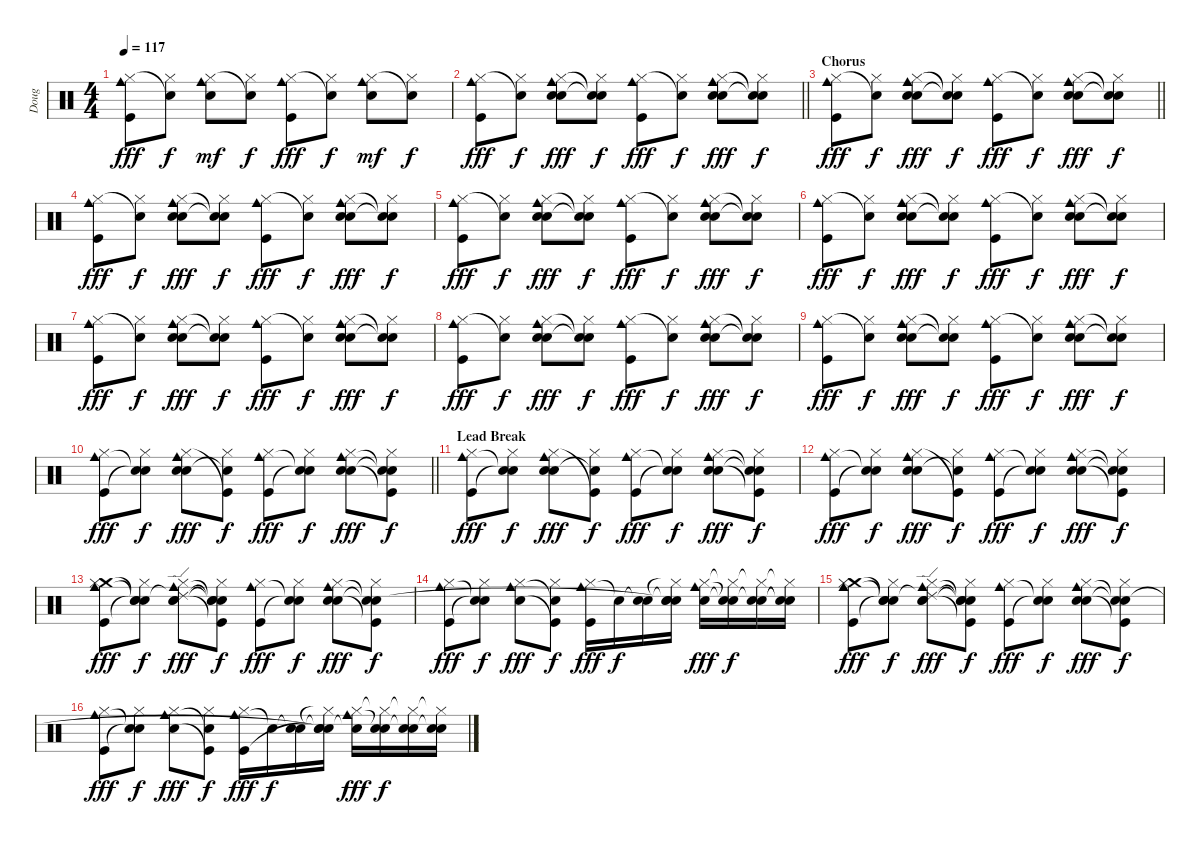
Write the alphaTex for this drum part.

\track ("Doug" "Doug") {instrument percussion}
\staff {score}
\articulation defaults
\ts (4 4)
\tempo 117
\clef neutral
\ks c
("Cowbell medium (hit)" "Hi-Hat (closed)" "Kick (hit)").8{dy fff} ("Hi-Hat (closed)" "Snare (hit)"{t}).8{dy f} ("Cowbell medium (hit)" "Hi-Hat (closed)" "Snare (hit) 2").8{dy mf} ("Hi-Hat (closed)" "Snare (hit)"{t}).8{dy f} ("Cowbell medium (hit)" "Hi-Hat (closed)" "Kick (hit)").8{dy fff} ("Hi-Hat (closed)" "Snare (hit)"{t}).8{dy f} ("Cowbell medium (hit)" "Hi-Hat (closed)" "Snare (hit) 2").8{dy mf} ("Hi-Hat (closed)" "Snare (hit)"{t}).8{dy f} |
\barLineRight lightlight
("Cowbell medium (hit)" "Hi-Hat (closed)" "Kick (hit)").8{dy fff} ("Hi-Hat (closed)" "Snare (hit)"{t}).8{dy f} ("Cowbell medium (hit)" "Hi-Hat (closed)" "Snare (hit) 2" "Hand Clap (hit)").8{dy fff} ("Hi-Hat (closed)" "Snare (hit)"{t} "Snare (hit)"{t}).8{dy f} ("Cowbell medium (hit)" "Hi-Hat (closed)" "Kick (hit)").8{dy fff} ("Hi-Hat (closed)" "Snare (hit)"{t}).8{dy f} ("Cowbell medium (hit)" "Hi-Hat (closed)" "Snare (hit) 2" "Hand Clap (hit)").8{dy fff} ("Hi-Hat (closed)" "Snare (hit)"{t} "Snare (hit)"{t}).8{dy f} |
\section ("" "Chorus")
\barLineRight lightlight
("Cowbell medium (hit)" "Hi-Hat (closed)" "Kick (hit)").8{dy fff} ("Hi-Hat (closed)" "Snare (hit)"{t}).8{dy f} ("Cowbell medium (hit)" "Hi-Hat (closed)" "Snare (hit) 2" "Hand Clap (hit)").8{dy fff} ("Hi-Hat (closed)" "Snare (hit)"{t} "Snare (hit)"{t}).8{dy f} ("Cowbell medium (hit)" "Hi-Hat (closed)" "Kick (hit)").8{dy fff} ("Hi-Hat (closed)" "Snare (hit)"{t}).8{dy f} ("Cowbell medium (hit)" "Hi-Hat (closed)" "Snare (hit) 2" "Hand Clap (hit)").8{dy fff} ("Hi-Hat (closed)" "Snare (hit)"{t} "Snare (hit)"{t}).8{dy f} |
("Cowbell medium (hit)" "Hi-Hat (closed)" "Kick (hit)").8{dy fff} ("Hi-Hat (closed)" "Snare (hit)"{t}).8{dy f} ("Cowbell medium (hit)" "Hi-Hat (closed)" "Snare (hit) 2" "Hand Clap (hit)").8{dy fff} ("Hi-Hat (closed)" "Snare (hit)"{t} "Snare (hit)"{t}).8{dy f} ("Cowbell medium (hit)" "Hi-Hat (closed)" "Kick (hit)").8{dy fff} ("Hi-Hat (closed)" "Snare (hit)"{t}).8{dy f} ("Cowbell medium (hit)" "Hi-Hat (closed)" "Snare (hit) 2" "Hand Clap (hit)").8{dy fff} ("Hi-Hat (closed)" "Snare (hit)"{t} "Snare (hit)"{t}).8{dy f} |
("Cowbell medium (hit)" "Hi-Hat (closed)" "Kick (hit)").8{dy fff} ("Hi-Hat (closed)" "Snare (hit)"{t}).8{dy f} ("Cowbell medium (hit)" "Hi-Hat (closed)" "Snare (hit) 2" "Hand Clap (hit)").8{dy fff} ("Hi-Hat (closed)" "Snare (hit)"{t} "Snare (hit)"{t}).8{dy f} ("Cowbell medium (hit)" "Hi-Hat (closed)" "Kick (hit)").8{dy fff} ("Hi-Hat (closed)" "Snare (hit)"{t}).8{dy f} ("Cowbell medium (hit)" "Hi-Hat (closed)" "Snare (hit) 2" "Hand Clap (hit)").8{dy fff} ("Hi-Hat (closed)" "Snare (hit)"{t} "Snare (hit)"{t}).8{dy f} |
("Cowbell medium (hit)" "Hi-Hat (closed)" "Kick (hit)").8{dy fff} ("Hi-Hat (closed)" "Snare (hit)"{t}).8{dy f} ("Cowbell medium (hit)" "Hi-Hat (closed)" "Snare (hit) 2" "Hand Clap (hit)").8{dy fff} ("Hi-Hat (closed)" "Snare (hit)"{t} "Snare (hit)"{t}).8{dy f} ("Cowbell medium (hit)" "Hi-Hat (closed)" "Kick (hit)").8{dy fff} ("Hi-Hat (closed)" "Snare (hit)"{t}).8{dy f} ("Cowbell medium (hit)" "Hi-Hat (closed)" "Snare (hit) 2" "Hand Clap (hit)").8{dy fff} ("Hi-Hat (closed)" "Snare (hit)"{t} "Snare (hit)"{t}).8{dy f} |
("Cowbell medium (hit)" "Hi-Hat (closed)" "Kick (hit)").8{dy fff} ("Hi-Hat (closed)" "Snare (hit)"{t}).8{dy f} ("Cowbell medium (hit)" "Hi-Hat (closed)" "Snare (hit) 2" "Hand Clap (hit)").8{dy fff} ("Hi-Hat (closed)" "Snare (hit)"{t} "Snare (hit)"{t}).8{dy f} ("Cowbell medium (hit)" "Hi-Hat (closed)" "Kick (hit)").8{dy fff} ("Hi-Hat (closed)" "Snare (hit)"{t}).8{dy f} ("Cowbell medium (hit)" "Hi-Hat (closed)" "Snare (hit) 2" "Hand Clap (hit)").8{dy fff} ("Hi-Hat (closed)" "Snare (hit)"{t} "Snare (hit)"{t}).8{dy f} |
("Cowbell medium (hit)" "Hi-Hat (closed)" "Kick (hit)").8{dy fff} ("Hi-Hat (closed)" "Snare (hit)"{t}).8{dy f} ("Cowbell medium (hit)" "Hi-Hat (closed)" "Snare (hit) 2" "Hand Clap (hit)").8{dy fff} ("Hi-Hat (closed)" "Snare (hit)"{t} "Snare (hit)"{t}).8{dy f} ("Cowbell medium (hit)" "Hi-Hat (closed)" "Kick (hit)").8{dy fff} ("Hi-Hat (closed)" "Snare (hit)"{t}).8{dy f} ("Cowbell medium (hit)" "Hi-Hat (closed)" "Snare (hit) 2" "Hand Clap (hit)").8{dy fff} ("Hi-Hat (closed)" "Snare (hit)"{t} "Snare (hit)"{t}).8{dy f} |
("Cowbell medium (hit)" "Hi-Hat (closed)" "Kick (hit)").8{dy fff} ("Hi-Hat (closed)" "Snare (hit)"{t}).8{dy f} ("Cowbell medium (hit)" "Hi-Hat (closed)" "Snare (hit) 2" "Hand Clap (hit)").8{dy fff} ("Hi-Hat (closed)" "Snare (hit)"{t} "Snare (hit)"{t}).8{dy f} ("Cowbell medium (hit)" "Hi-Hat (closed)" "Kick (hit)").8{dy fff} ("Hi-Hat (closed)" "Snare (hit)"{t}).8{dy f} ("Cowbell medium (hit)" "Hi-Hat (closed)" "Snare (hit) 2" "Hand Clap (hit)").8{dy fff} ("Hi-Hat (closed)" "Snare (hit)"{t} "Snare (hit)"{t}).8{dy f} |
\barLineRight lightlight
("Cowbell medium (hit)" "Hi-Hat (closed)" "Kick (hit)").8{dy fff} ("Snare (hit)"{t} "Hi-Hat (closed)" "Snare (hit)"{t}).8{dy f} ("Cowbell medium (hit)" "Hi-Hat (closed)" "Snare (hit) 2" "Hand Clap (hit)").8{dy fff} ("Hi-Hat (closed)" "Kick (hit)"{t} "Snare (hit)"{t}).8{dy f} ("Cowbell medium (hit)" "Hi-Hat (closed)" "Kick (hit)").8{dy fff} ("Snare (hit)"{t} "Hi-Hat (closed)" "Snare (hit)"{t}).8{dy f} ("Cowbell medium (hit)" "Hi-Hat (closed)" "Snare (hit) 2" "Hand Clap (hit)").8{dy fff} ("Snare (hit)"{t} "Hi-Hat (closed)" "Kick (hit)"{t} "Snare (hit)"{t}).8{dy f} |
\section ("" "Lead Break")
("Cowbell medium (hit)" "Hi-Hat (closed)" "Kick (hit)").8{dy fff} ("Snare (hit)"{t} "Hi-Hat (closed)" "Snare (hit)"{t}).8{dy f} ("Cowbell medium (hit)" "Hi-Hat (closed)" "Snare (hit) 2" "Hand Clap (hit)").8{dy fff} ("Hi-Hat (closed)" "Kick (hit)"{t} "Snare (hit)"{t}).8{dy f} ("Cowbell medium (hit)" "Hi-Hat (closed)" "Kick (hit)").8{dy fff} ("Snare (hit)"{t} "Hi-Hat (closed)" "Snare (hit)"{t}).8{dy f} ("Cowbell medium (hit)" "Hi-Hat (closed)" "Snare (hit) 2" "Hand Clap (hit)").8{dy fff} ("Snare (hit)"{t} "Hi-Hat (closed)" "Kick (hit)"{t} "Snare (hit)"{t}).8{dy f} |
("Cowbell medium (hit)" "Hi-Hat (closed)" "Kick (hit)").8{dy fff} ("Snare (hit)"{t} "Hi-Hat (closed)" "Snare (hit)"{t}).8{dy f} ("Cowbell medium (hit)" "Hi-Hat (closed)" "Snare (hit) 2" "Hand Clap (hit)").8{dy fff} ("Hi-Hat (closed)" "Kick (hit)"{t} "Snare (hit)"{t}).8{dy f} ("Cowbell medium (hit)" "Hi-Hat (closed)" "Kick (hit)").8{dy fff} ("Snare (hit)"{t} "Hi-Hat (closed)" "Snare (hit)"{t}).8{dy f} ("Cowbell medium (hit)" "Hi-Hat (closed)" "Snare (hit) 2" "Hand Clap (hit)").8{dy fff} ("Snare (hit)"{t} "Hi-Hat (closed)" "Kick (hit)"{t} "Snare (hit)"{t}).8{dy f} |
("Crash medium (hit)" "Hi-Hat (closed)" "Kick (hit)" "Cowbell medium (hit)").8{dy fff} ("Snare (hit)"{t} "Hi-Hat (closed)" "Snare (hit)"{t} "Snare (hit)"{t}).8{dy f} ("Ride (edge) 2"{t} "Hi-Hat (closed)" "Snare (hit) 2" "Cowbell medium (hit)" "Hand Clap (hit)").8{dy fff} ("Snare (hit)"{t} "Hi-Hat (closed)" "Kick (hit)"{t} "Snare (hit)"{t} "Snare (hit)"{t}).8{dy f} ("Cowbell medium (hit)" "Hi-Hat (closed)" "Kick (hit)").8{dy fff} ("Snare (hit)"{t} "Hi-Hat (closed)" "Snare (hit)"{t}).8{dy f} ("Cowbell medium (hit)" "Hi-Hat (closed)" "Snare (hit) 2" "Hand Clap (hit)").8{dy fff} ("Snare (hit)"{t} "Hi-Hat (closed)" "Kick (hit)"{t} "Snare (hit)"{t}).8{dy f} |
("Cowbell medium (hit)" "Hi-Hat (closed)" "Kick (hit)").8{dy fff} ("Snare (hit)"{t} "Hi-Hat (closed)" "Snare (hit)"{t}).8{dy f} ("Cowbell medium (hit)" "Hi-Hat (closed)" "Snare (hit) 2").8{dy fff} ("Snare (hit)"{t} "Hi-Hat (closed)" "Kick (hit)"{t}).8{dy f} ("Cowbell medium (hit)" "Hi-Hat (closed)" "Kick (hit)").16{dy fff} "Snare (hit)"{t}.16{dy f} ("Snare (hit)"{t} "Snare (hit) 2").16 ("Snare (hit)"{t} "Hi-Hat (closed)"{t} "Snare (hit) 2" "Snare (hit)"{t}).16 ("Cowbell medium (hit)" "Hi-Hat (closed)" "Snare (hit) 2").16{dy fff} ("Snare (hit)"{t} "Hi-Hat (closed)"{t} "Snare (hit) 2"{t}).16{dy f} ("Snare (hit)"{t} "Hi-Hat (closed)"{t} "Snare (hit) 2").16 ("Snare (hit)"{t} "Hi-Hat (closed)"{t} "Snare (hit) 2"{t}).16 |
("Crash medium (hit)" "Hi-Hat (closed)" "Kick (hit)" "Cowbell medium (hit)").8{dy fff} ("Snare (hit)"{t} "Hi-Hat (closed)" "Snare (hit)"{t} "Snare (hit)"{t}).8{dy f} ("Ride (edge) 2"{t} "Hi-Hat (closed)" "Snare (hit) 2" "Cowbell medium (hit)" "Hand Clap (hit)").8{dy fff} ("Snare (hit)"{t} "Hi-Hat (closed)" "Kick (hit)"{t} "Snare (hit)"{t} "Snare (hit)"{t}).8{dy f} ("Cowbell medium (hit)" "Hi-Hat (closed)" "Kick (hit)").8{dy fff} ("Snare (hit)"{t} "Hi-Hat (closed)" "Snare (hit)"{t}).8{dy f} ("Cowbell medium (hit)" "Hi-Hat (closed)" "Snare (hit) 2" "Hand Clap (hit)").8{dy fff} ("Snare (hit)"{t} "Hi-Hat (closed)" "Kick (hit)"{t} "Snare (hit)"{t}).8{dy f} |
("Cowbell medium (hit)" "Hi-Hat (closed)" "Kick (hit)").8{dy fff} ("Snare (hit)"{t} "Hi-Hat (closed)" "Snare (hit)"{t}).8{dy f} ("Cowbell medium (hit)" "Hi-Hat (closed)" "Snare (hit) 2").8{dy fff} ("Snare (hit)"{t} "Hi-Hat (closed)" "Kick (hit)"{t}).8{dy f} ("Cowbell medium (hit)" "Hi-Hat (closed)" "Kick (hit)").16{dy fff} "Snare (hit)"{t}.16{dy f} ("Snare (hit)"{t} "Snare (hit) 2").16 ("Snare (hit)"{t} "Hi-Hat (closed)"{t} "Snare (hit) 2"{t} "Snare (hit)"{t}).16 ("Cowbell medium (hit)" "Hi-Hat (closed)" "Snare (hit) 2"{t}).16{dy fff} ("Snare (hit)"{t} "Hi-Hat (closed)"{t} "Snare (hit) 2").16{dy f} ("Snare (hit)"{t} "Hi-Hat (closed)"{t} "Snare (hit) 2").16 ("Snare (hit)"{t} "Hi-Hat (closed)"{t} "Snare (hit) 2").16
